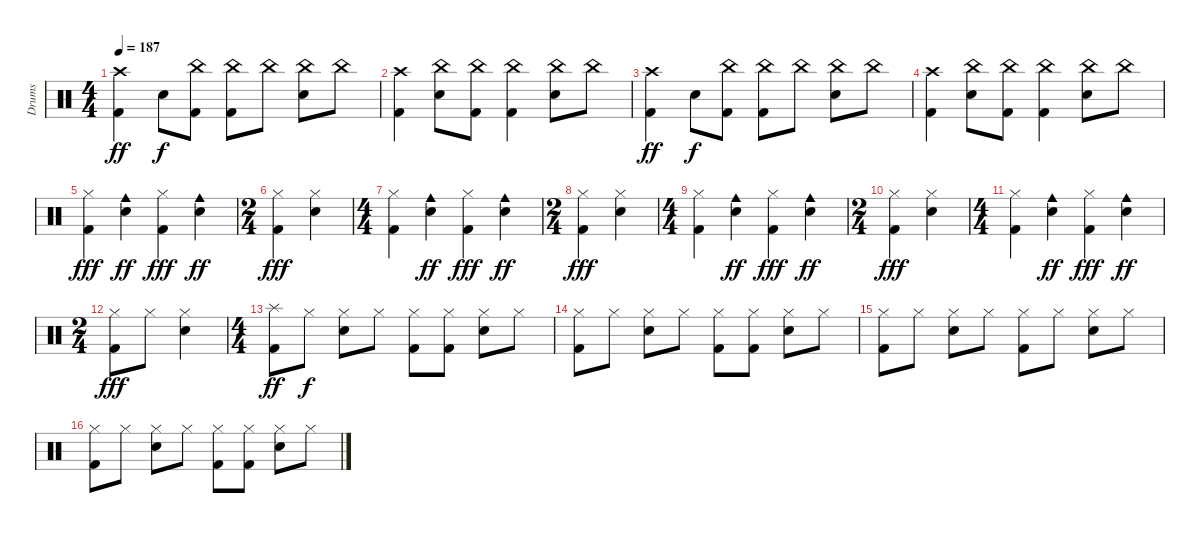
\track ("Drums" "Drums") {instrument percussion}
\staff {score}
\articulation defaults
\ts (4 4)
\tempo 187
\clef neutral
\ks c
("Kick (hit) 2" "Crash high (hit)").4{dy ff} "Snare (hit) 2".8{dy f} ("Kick (hit) 2" "China (hit)").8 ("Kick (hit) 2" "China (hit)").8 "China (hit)".8{bd 240} ("Snare (hit) 2" "China (hit)").8 "China (hit)".8{bd 240} |
("Kick (hit) 2" "Crash high (hit)").4 ("Snare (hit) 2" "China (hit)").8 ("Kick (hit) 2" "China (hit)").8{bd 240} ("Kick (hit) 2" "China (hit)").4 ("Snare (hit) 2" "China (hit)").8 "China (hit)".8 |
("Kick (hit) 2" "Crash high (hit)").4{dy ff} "Snare (hit) 2".8{dy f} ("Kick (hit) 2" "China (hit)").8 ("Kick (hit) 2" "China (hit)").8 "China (hit)".8{bd 240} ("Snare (hit) 2" "China (hit)").8 "China (hit)".8{bd 240} |
("Kick (hit) 2" "Crash high (hit)").4 ("Snare (hit) 2" "China (hit)").8 ("Kick (hit) 2" "China (hit)").8{bd 240} ("Kick (hit) 2" "China (hit)").4 ("Snare (hit) 2" "China (hit)").8 "China (hit)".8 |
("Kick (hit) 2" "Hi-Hat (closed)").4{dy fff} ("Snare (hit) 2" "Cowbell medium (hit)").4{dy ff} ("Kick (hit) 2" "Hi-Hat (closed)").4{dy fff} ("Snare (hit) 2" "Cowbell medium (hit)").4{dy ff} |
\ts (2 4)
("Kick (hit) 2" "Hi-Hat (closed)").4{dy fff} ("Snare (hit) 2" "Hi-Hat (closed)").4 |
\ts (4 4)
("Kick (hit) 2" "Hi-Hat (closed)").4 ("Snare (hit) 2" "Cowbell medium (hit)").4{dy ff} ("Kick (hit) 2" "Hi-Hat (closed)").4{dy fff} ("Snare (hit) 2" "Cowbell medium (hit)").4{dy ff} |
\ts (2 4)
("Kick (hit) 2" "Hi-Hat (closed)").4{dy fff} ("Snare (hit) 2" "Hi-Hat (closed)").4 |
\ts (4 4)
("Kick (hit) 2" "Hi-Hat (closed)").4 ("Snare (hit) 2" "Cowbell medium (hit)").4{dy ff} ("Kick (hit) 2" "Hi-Hat (closed)").4{dy fff} ("Snare (hit) 2" "Cowbell medium (hit)").4{dy ff} |
\ts (2 4)
("Kick (hit) 2" "Hi-Hat (closed)").4{dy fff} ("Snare (hit) 2" "Hi-Hat (closed)").4 |
\ts (4 4)
("Kick (hit) 2" "Hi-Hat (closed)").4 ("Snare (hit) 2" "Cowbell medium (hit)").4{dy ff} ("Kick (hit) 2" "Hi-Hat (closed)").4{dy fff} ("Snare (hit) 2" "Cowbell medium (hit)").4{dy ff} |
\ts (2 4)
("Kick (hit) 2" "Hi-Hat (closed)").8{dy fff} "Hi-Hat (closed)".8 ("Snare (hit) 2" "Hi-Hat (closed)").4 |
\ts (4 4)
("Kick (hit) 2" "Splash (hit)").8{dy ff} "Hi-Hat (closed)".8{dy f} ("Snare (hit) 2" "Hi-Hat (closed)").8 "Hi-Hat (closed)".8 ("Kick (hit) 2" "Hi-Hat (closed)").8 ("Kick (hit) 2" "Hi-Hat (closed)").8 ("Snare (hit) 2" "Hi-Hat (closed)").8 "Hi-Hat (closed)".8 |
("Kick (hit) 2" "Hi-Hat (closed)").8 "Hi-Hat (closed)".8 ("Snare (hit) 2" "Hi-Hat (closed)").8 "Hi-Hat (closed)".8 ("Kick (hit) 2" "Hi-Hat (closed)").8 ("Kick (hit) 2" "Hi-Hat (closed)").8 ("Snare (hit) 2" "Hi-Hat (closed)").8 "Hi-Hat (closed)".8 |
("Kick (hit) 2" "Hi-Hat (closed)").8 "Hi-Hat (closed)".8 ("Snare (hit) 2" "Hi-Hat (closed)").8 "Hi-Hat (closed)".8 ("Kick (hit) 2" "Hi-Hat (closed)").8 "Hi-Hat (closed)".8 ("Snare (hit) 2" "Hi-Hat (closed)").8 "Hi-Hat (closed)".8 |
("Kick (hit) 2" "Hi-Hat (closed)").8 "Hi-Hat (closed)".8 ("Snare (hit) 2" "Hi-Hat (closed)").8 "Hi-Hat (closed)".8 ("Kick (hit) 2" "Hi-Hat (closed)").8 ("Kick (hit) 2" "Hi-Hat (closed)").8 ("Snare (hit) 2" "Hi-Hat (closed)").8 "Hi-Hat (closed)".8
